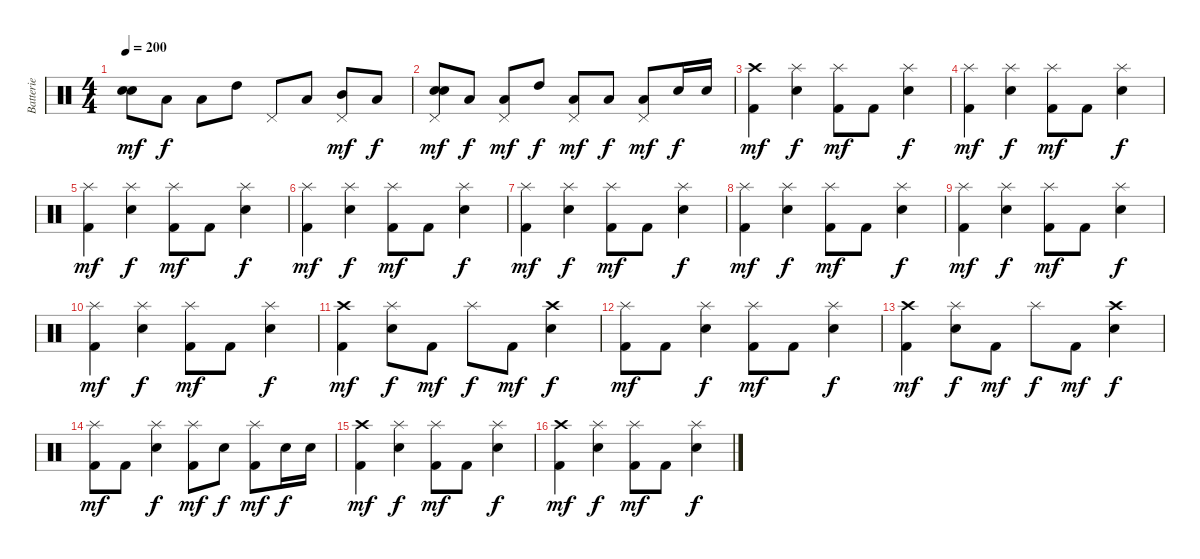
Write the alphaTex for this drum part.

\track ("Batterie" "Batterie") {instrument percussion}
\staff {score}
\articulation defaults
\ts (4 4)
\tempo 200
\clef neutral
\ks c
("Snare (hit) 2" "Snare (hit) 2").8{bd 120 dy mf} "Low Tom (hit)".8{dy f} "Low Tom (hit)".8 "High Tom (hit)".8 "Pedal Hi-Hat (hit)".8 "Low Tom (hit)".8 ("Pedal Hi-Hat (hit)" "Mid Tom (hit)").8{dy mf} "Low Tom (hit)".8{dy f} |
("Pedal Hi-Hat (hit)" "Snare (hit) 2" "Snare (hit) 2").8{bd 120 dy mf} "Low Tom (hit)".8{dy f} ("Pedal Hi-Hat (hit)" "Low Tom (hit)").8{dy mf} "High Tom (hit)".8{dy f} ("Pedal Hi-Hat (hit)" "Low Tom (hit)").8{dy mf} "Low Tom (hit)".8{dy f} ("Pedal Hi-Hat (hit)" "Low Tom (hit)").8{dy mf} "Snare (hit) 2".16{dy f} "Snare (hit) 2".16 |
("Crash high (hit)" "Kick (hit) 2").4{dy mf} ("Splash (hit)" "Snare (hit) 2").4{dy f} ("Splash (hit)" "Kick (hit) 2").8{dy mf} "Kick (hit) 2".8 ("Splash (hit)" "Snare (hit) 2").4{dy f} |
("Splash (hit)" "Kick (hit) 2").4{dy mf} ("Splash (hit)" "Snare (hit) 2").4{dy f} ("Splash (hit)" "Kick (hit) 2").8{dy mf} "Kick (hit) 2".8 ("Splash (hit)" "Snare (hit) 2").4{dy f} |
("Splash (hit)" "Kick (hit) 2").4{dy mf} ("Splash (hit)" "Snare (hit) 2").4{dy f} ("Splash (hit)" "Kick (hit) 2").8{dy mf} "Kick (hit) 2".8 ("Splash (hit)" "Snare (hit) 2").4{dy f} |
("Splash (hit)" "Kick (hit) 2").4{dy mf} ("Splash (hit)" "Snare (hit) 2").4{dy f} ("Splash (hit)" "Kick (hit) 2").8{dy mf} "Kick (hit) 2".8 ("Splash (hit)" "Snare (hit) 2").4{dy f} |
("Splash (hit)" "Kick (hit) 2").4{dy mf} ("Splash (hit)" "Snare (hit) 2").4{dy f} ("Splash (hit)" "Kick (hit) 2").8{dy mf} "Kick (hit) 2".8 ("Splash (hit)" "Snare (hit) 2").4{dy f} |
("Splash (hit)" "Kick (hit) 2").4{dy mf} ("Splash (hit)" "Snare (hit) 2").4{dy f} ("Splash (hit)" "Kick (hit) 2").8{dy mf} "Kick (hit) 2".8 ("Splash (hit)" "Snare (hit) 2").4{dy f} |
("Splash (hit)" "Kick (hit) 2").4{dy mf} ("Splash (hit)" "Snare (hit) 2").4{dy f} ("Splash (hit)" "Kick (hit) 2").8{dy mf} "Kick (hit) 2".8 ("Splash (hit)" "Snare (hit) 2").4{dy f} |
("Splash (hit)" "Kick (hit) 2").4{dy mf} ("Splash (hit)" "Snare (hit) 2").4{dy f} ("Splash (hit)" "Kick (hit) 2").8{dy mf} "Kick (hit) 2".8 ("Splash (hit)" "Snare (hit) 2").4{dy f} |
("Crash high (hit)" "Kick (hit) 2").4{dy mf} ("Splash (hit)" "Snare (hit) 2").8{dy f} "Kick (hit) 2".8{dy mf} "Splash (hit)".8{dy f} "Kick (hit) 2".8{dy mf} ("Crash high (hit)" "Snare (hit) 2").4{dy f} |
("Splash (hit)" "Kick (hit) 2").8{dy mf} "Kick (hit) 2".8 ("Splash (hit)" "Snare (hit) 2").4{dy f} ("Splash (hit)" "Kick (hit) 2").8{dy mf} "Kick (hit) 2".8 ("Splash (hit)" "Snare (hit) 2").4{dy f} |
("Crash high (hit)" "Kick (hit) 2").4{dy mf} ("Splash (hit)" "Snare (hit) 2").8{dy f} "Kick (hit) 2".8{dy mf} "Splash (hit)".8{dy f} "Kick (hit) 2".8{dy mf} ("Crash high (hit)" "Snare (hit) 2").4{dy f} |
("Splash (hit)" "Kick (hit) 2").8{dy mf} "Kick (hit) 2".8 ("Splash (hit)" "Snare (hit) 2").4{dy f} ("Splash (hit)" "Kick (hit) 2").8{dy mf} "Snare (hit) 2".8{dy f} ("Splash (hit)" "Kick (hit) 2").8{dy mf} "Snare (hit) 2".16{dy f} "Snare (hit) 2".16 |
("Crash high (hit)" "Kick (hit) 2").4{dy mf} ("Splash (hit)" "Snare (hit) 2").4{dy f} ("Splash (hit)" "Kick (hit) 2").8{dy mf} "Kick (hit) 2".8 ("Splash (hit)" "Snare (hit) 2").4{dy f} |
("Crash high (hit)" "Kick (hit) 2").4{dy mf} ("Splash (hit)" "Snare (hit) 2").4{dy f} ("Splash (hit)" "Kick (hit) 2").8{dy mf} "Kick (hit) 2".8 ("Splash (hit)" "Snare (hit) 2").4{dy f}
